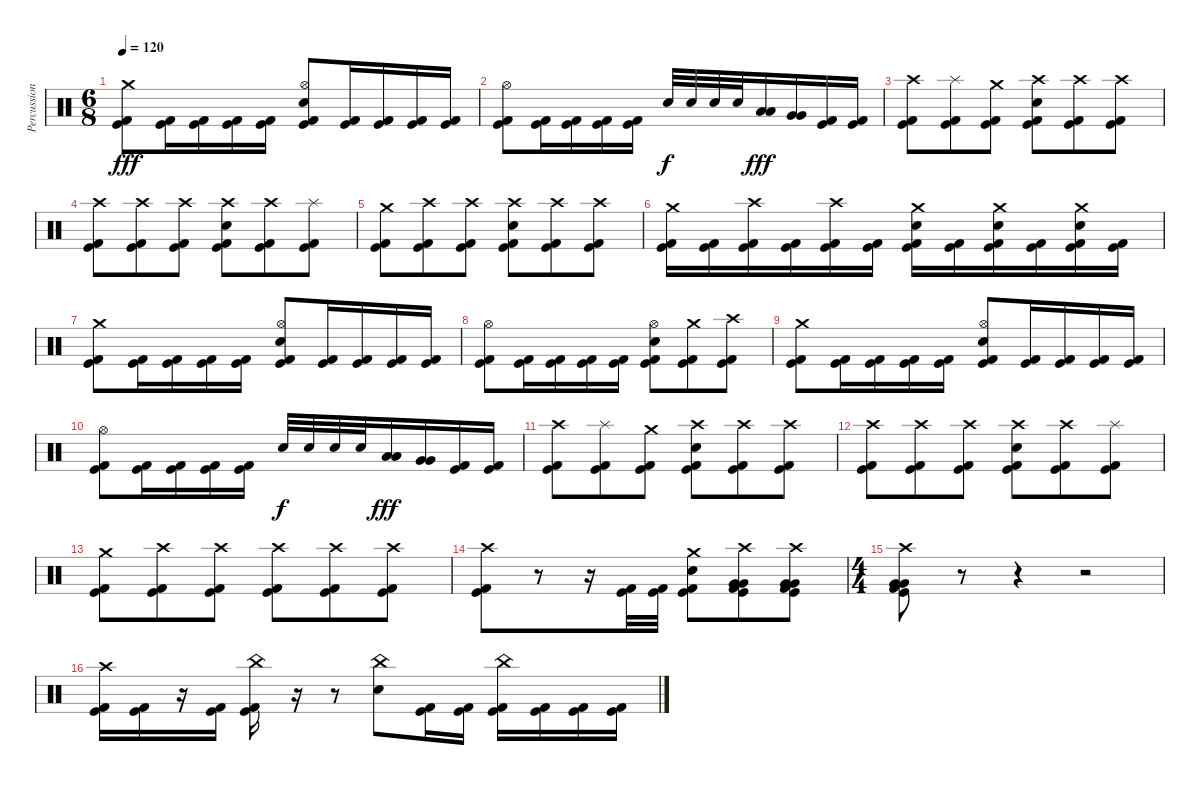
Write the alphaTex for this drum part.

\track ("Percussion" "Percussion") {instrument percussion}
\staff {score}
\articulation defaults
\ts (6 8)
\tempo 120
\clef neutral
\ks c
("Crash medium (hit)" "Kick (hit)" "Kick (hit) 2").8{dy fff} ("Kick (hit)" "Kick (hit) 2").16 ("Kick (hit)" "Kick (hit) 2").16 ("Kick (hit)" "Kick (hit) 2").16 ("Kick (hit)" "Kick (hit) 2").16 ("Hi-Hat (open)" "Electric Snare (hit)" "Kick (hit)" "Kick (hit) 2").8 ("Kick (hit)" "Kick (hit) 2").16 ("Kick (hit)" "Kick (hit) 2").16 ("Kick (hit)" "Kick (hit) 2").16 ("Kick (hit)" "Kick (hit) 2").16 |
("Hi-Hat (open)" "Kick (hit)" "Kick (hit) 2").8 ("Kick (hit)" "Kick (hit) 2").16 ("Kick (hit)" "Kick (hit) 2").16 ("Kick (hit)" "Kick (hit) 2").16 ("Kick (hit)" "Kick (hit) 2").16 "Electric Snare (hit)".32{dy f} "Electric Snare (hit)".32 "Electric Snare (hit)".32 "Electric Snare (hit)".32 ("Low Tom (hit)" "Low Tom (hit)").16{dy fff} ("Very Low Tom (hit)" "Very Low Tom (hit)").16 ("Kick (hit)" "Kick (hit) 2").16 ("Kick (hit)" "Kick (hit) 2").16 |
("Crash high (hit)" "Kick (hit)" "Kick (hit) 2").8 ("Splash (hit)" "Kick (hit)" "Kick (hit) 2").8 ("Crash medium (hit)" "Kick (hit)" "Kick (hit) 2").8 ("Crash high (hit)" "Electric Snare (hit)" "Kick (hit)" "Kick (hit) 2").8 ("Crash high (hit)" "Kick (hit)" "Kick (hit) 2").8 ("Crash high (hit)" "Kick (hit)" "Kick (hit) 2").8 |
("Crash high (hit)" "Kick (hit)" "Kick (hit) 2").8 ("Crash high (hit)" "Kick (hit)" "Kick (hit) 2").8 ("Crash high (hit)" "Kick (hit)" "Kick (hit) 2").8 ("Crash high (hit)" "Electric Snare (hit)" "Kick (hit)" "Kick (hit) 2").8 ("Crash high (hit)" "Kick (hit)" "Kick (hit) 2").8 ("Splash (hit)" "Kick (hit)" "Kick (hit) 2").8 |
("Crash medium (hit)" "Kick (hit)" "Kick (hit) 2").8 ("Crash high (hit)" "Kick (hit)" "Kick (hit) 2").8 ("Crash high (hit)" "Kick (hit)" "Kick (hit) 2").8 ("Crash high (hit)" "Electric Snare (hit)" "Kick (hit)" "Kick (hit) 2").8 ("Crash high (hit)" "Kick (hit)" "Kick (hit) 2").8 ("Crash high (hit)" "Kick (hit)" "Kick (hit) 2").8 |
("Crash medium (hit)" "Kick (hit)" "Kick (hit) 2").16 ("Kick (hit)" "Kick (hit) 2").16 ("Crash high (hit)" "Kick (hit)" "Kick (hit) 2").16 ("Kick (hit)" "Kick (hit) 2").16 ("Crash high (hit)" "Kick (hit)" "Kick (hit) 2").16 ("Kick (hit)" "Kick (hit) 2").16 ("Crash medium (hit)" "Electric Snare (hit)" "Kick (hit)" "Kick (hit) 2").16 ("Kick (hit)" "Kick (hit) 2").16 ("Crash medium (hit)" "Electric Snare (hit)" "Kick (hit)" "Kick (hit) 2").16 ("Kick (hit)" "Kick (hit) 2").16 ("Crash medium (hit)" "Electric Snare (hit)" "Kick (hit)" "Kick (hit) 2").16 ("Kick (hit)" "Kick (hit) 2").16 |
("Crash medium (hit)" "Kick (hit)" "Kick (hit) 2").8 ("Kick (hit)" "Kick (hit) 2").16 ("Kick (hit)" "Kick (hit) 2").16 ("Kick (hit)" "Kick (hit) 2").16 ("Kick (hit)" "Kick (hit) 2").16 ("Hi-Hat (open)" "Electric Snare (hit)" "Kick (hit)" "Kick (hit) 2").8 ("Kick (hit)" "Kick (hit) 2").16 ("Kick (hit)" "Kick (hit) 2").16 ("Kick (hit)" "Kick (hit) 2").16 ("Kick (hit)" "Kick (hit) 2").16 |
("Hi-Hat (open)" "Kick (hit)" "Kick (hit) 2").8 ("Kick (hit)" "Kick (hit) 2").16 ("Kick (hit)" "Kick (hit) 2").16 ("Kick (hit)" "Kick (hit) 2").16 ("Kick (hit)" "Kick (hit) 2").16 ("Hi-Hat (open)" "Electric Snare (hit)" "Kick (hit)" "Kick (hit) 2").8 ("Crash medium (hit)" "Kick (hit)" "Kick (hit) 2").8 ("Crash high (hit)" "Kick (hit)" "Kick (hit) 2").8 |
("Crash medium (hit)" "Kick (hit)" "Kick (hit) 2").8 ("Kick (hit)" "Kick (hit) 2").16 ("Kick (hit)" "Kick (hit) 2").16 ("Kick (hit)" "Kick (hit) 2").16 ("Kick (hit)" "Kick (hit) 2").16 ("Hi-Hat (open)" "Electric Snare (hit)" "Kick (hit)" "Kick (hit) 2").8 ("Kick (hit)" "Kick (hit) 2").16 ("Kick (hit)" "Kick (hit) 2").16 ("Kick (hit)" "Kick (hit) 2").16 ("Kick (hit)" "Kick (hit) 2").16 |
("Hi-Hat (open)" "Kick (hit)" "Kick (hit) 2").8 ("Kick (hit)" "Kick (hit) 2").16 ("Kick (hit)" "Kick (hit) 2").16 ("Kick (hit)" "Kick (hit) 2").16 ("Kick (hit)" "Kick (hit) 2").16 "Electric Snare (hit)".32{dy f} "Electric Snare (hit)".32 "Electric Snare (hit)".32 "Electric Snare (hit)".32 ("Low Tom (hit)" "Low Tom (hit)").16{dy fff} ("Very Low Tom (hit)" "Very Low Tom (hit)").16 ("Kick (hit)" "Kick (hit) 2").16 ("Kick (hit)" "Kick (hit) 2").16 |
("Crash high (hit)" "Kick (hit)" "Kick (hit) 2").8 ("Splash (hit)" "Kick (hit)" "Kick (hit) 2").8 ("Crash medium (hit)" "Kick (hit)" "Kick (hit) 2").8 ("Crash high (hit)" "Electric Snare (hit)" "Kick (hit)" "Kick (hit) 2").8 ("Crash high (hit)" "Kick (hit)" "Kick (hit) 2").8 ("Crash high (hit)" "Kick (hit)" "Kick (hit) 2").8 |
("Crash high (hit)" "Kick (hit)" "Kick (hit) 2").8 ("Crash high (hit)" "Kick (hit)" "Kick (hit) 2").8 ("Crash high (hit)" "Kick (hit)" "Kick (hit) 2").8 ("Crash high (hit)" "Electric Snare (hit)" "Kick (hit)" "Kick (hit) 2").8 ("Crash high (hit)" "Kick (hit)" "Kick (hit) 2").8 ("Splash (hit)" "Kick (hit)" "Kick (hit) 2").8 |
("Crash medium (hit)" "Kick (hit)" "Kick (hit) 2").8 ("Crash high (hit)" "Kick (hit)" "Kick (hit) 2").8 ("Crash high (hit)" "Kick (hit)" "Kick (hit) 2").8 ("Crash high (hit)" "Kick (hit)" "Kick (hit) 2").8 ("Crash high (hit)" "Kick (hit)" "Kick (hit) 2").8 ("Crash high (hit)" "Kick (hit)" "Kick (hit) 2").8 |
("Crash high (hit)" "Kick (hit)" "Kick (hit) 2").8 r.8 r.16 ("Kick (hit)" "Kick (hit) 2").32 ("Kick (hit)" "Kick (hit) 2").32 ("Crash medium (hit)" "Electric Snare (hit)" "Kick (hit)" "Kick (hit) 2").8 ("Crash high (hit)" "Very Low Tom (hit)" "Very Low Tom (hit)" "Kick (hit)" "Kick (hit) 2").8 ("Crash high (hit)" "Very Low Tom (hit)" "Very Low Tom (hit)" "Kick (hit)" "Kick (hit) 2").8 |
\ts (4 4)
("Crash high (hit)" "Very Low Tom (hit)" "Very Low Tom (hit)" "Kick (hit)" "Kick (hit) 2").8 r.8{volume 0} r.4 r.2 |
("Crash high (hit)" "Kick (hit)" "Kick (hit) 2").16{volume 11} ("Kick (hit)" "Kick (hit) 2").16 r.16 ("Kick (hit)" "Kick (hit) 2").16 ("China (hit)" "Kick (hit)" "Kick (hit) 2").16 r.16 r.8 ("China (hit)" "Electric Snare (hit)").8 ("Kick (hit)" "Kick (hit) 2").16 ("Kick (hit)" "Kick (hit) 2").16 ("China (hit)" "Kick (hit)" "Kick (hit) 2").16 ("Kick (hit)" "Kick (hit) 2").16 ("Kick (hit)" "Kick (hit) 2").16 ("Kick (hit)" "Kick (hit) 2").16
